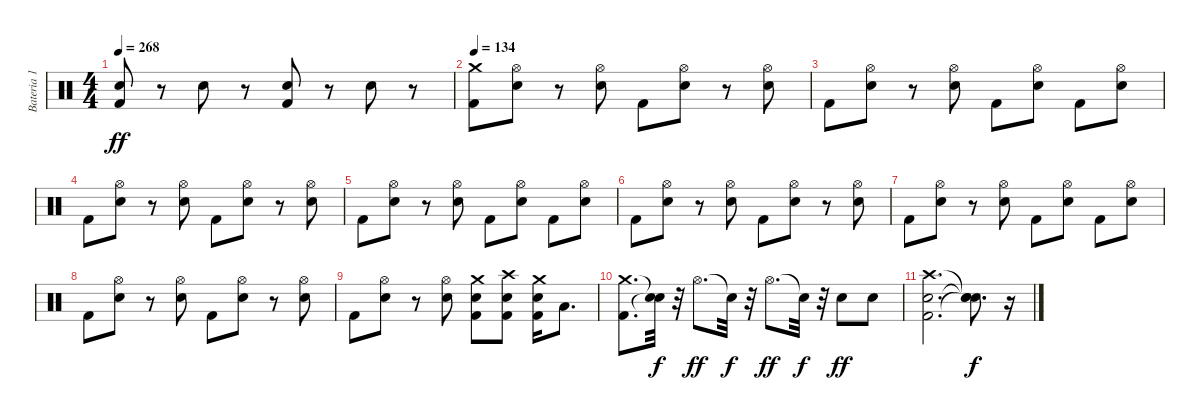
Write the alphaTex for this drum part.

\track ("Bateria 1" "Bateria 1") {instrument percussion}
\staff {score}
\articulation defaults
\ts (4 4)
\tempo 268
\clef neutral
\ks c
("Kick (hit) 2" "Electric Snare (hit)").8{dy ff volume 12} r.8 "Electric Snare (hit)".8{volume 14} r.8 ("Kick (hit) 2" "Electric Snare (hit)").8{volume 16} r.8 "Electric Snare (hit)".8 r.8 |
\tempo 134
("Kick (hit) 2" "Crash medium (hit)").8 ("Electric Snare (hit)" "Hi-Hat (open)").8 r.8 ("Electric Snare (hit)" "Hi-Hat (open)").8 "Kick (hit) 2".8 ("Electric Snare (hit)" "Hi-Hat (open)").8 r.8 ("Electric Snare (hit)" "Hi-Hat (open)").8 |
"Kick (hit) 2".8 ("Electric Snare (hit)" "Hi-Hat (open)").8 r.8 ("Electric Snare (hit)" "Hi-Hat (open)").8 "Kick (hit) 2".8 ("Electric Snare (hit)" "Hi-Hat (open)").8 "Kick (hit) 2".8 ("Electric Snare (hit)" "Hi-Hat (open)").8 |
"Kick (hit) 2".8 ("Electric Snare (hit)" "Hi-Hat (open)").8 r.8 ("Electric Snare (hit)" "Hi-Hat (open)").8 "Kick (hit) 2".8 ("Electric Snare (hit)" "Hi-Hat (open)").8 r.8 ("Electric Snare (hit)" "Hi-Hat (open)").8 |
"Kick (hit) 2".8 ("Electric Snare (hit)" "Hi-Hat (open)").8 r.8 ("Electric Snare (hit)" "Hi-Hat (open)").8 "Kick (hit) 2".8 ("Electric Snare (hit)" "Hi-Hat (open)").8 "Kick (hit) 2".8 ("Electric Snare (hit)" "Hi-Hat (open)").8 |
"Kick (hit) 2".8 ("Electric Snare (hit)" "Hi-Hat (open)").8 r.8 ("Electric Snare (hit)" "Hi-Hat (open)").8 "Kick (hit) 2".8 ("Electric Snare (hit)" "Hi-Hat (open)").8 r.8 ("Electric Snare (hit)" "Hi-Hat (open)").8 |
"Kick (hit) 2".8 ("Electric Snare (hit)" "Hi-Hat (open)").8 r.8 ("Electric Snare (hit)" "Hi-Hat (open)").8 "Kick (hit) 2".8 ("Electric Snare (hit)" "Hi-Hat (open)").8 "Kick (hit) 2".8 ("Electric Snare (hit)" "Hi-Hat (open)").8 |
"Kick (hit) 2".8 ("Electric Snare (hit)" "Hi-Hat (open)").8 r.8 ("Electric Snare (hit)" "Hi-Hat (open)").8 "Kick (hit) 2".8 ("Electric Snare (hit)" "Hi-Hat (open)").8 r.8 ("Electric Snare (hit)" "Hi-Hat (open)").8 |
"Kick (hit) 2".8 ("Electric Snare (hit)" "Hi-Hat (open)").8 r.8 ("Electric Snare (hit)" "Hi-Hat (open)").8 ("Kick (hit) 2" "Electric Snare (hit)" "Crash medium (hit)").8 ("Kick (hit) 2" "Electric Snare (hit)" "Crash high (hit)").8 ("Kick (hit) 2" "Electric Snare (hit)" "Crash medium (hit)").16 "Low Floor Tom (hit)".8{d} |
("Kick (hit) 2" "Crash medium (hit)").8{d} ("Snare (hit)"{t} "Snare (hit)"{t}).32{dy f} r.32 "Hi-Hat (open)".8{d dy ff} "Snare (hit)"{t}.32{dy f} r.32 "Hi-Hat (open)".8{d dy ff} "Snare (hit)"{t}.32{dy f} r.32 "Electric Snare (hit)".8{dy ff} "Electric Snare (hit)".8 |
("Kick (hit) 2" "Electric Snare (hit)" "Crash high (hit)").2{d} ("Snare (hit)"{t} "Snare (hit)"{t} "Snare (hit)"{t}).8{d dy f} r.16
